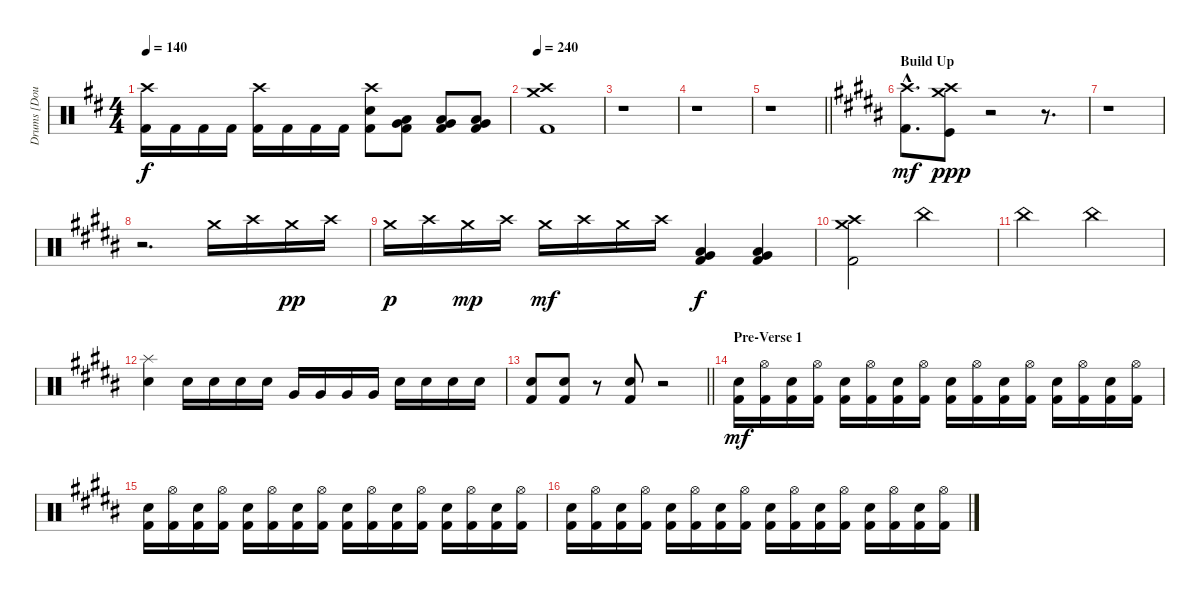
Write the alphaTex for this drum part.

\track ("Drums [Doug Anderson]" "Drums [Dou") {instrument percussion}
\staff {score}
\articulation defaults
\ts (4 4)
\tempo 140
\clef neutral
\ks bminor
("Crash high (hit)" "Kick (hit) 2").16{dy f} "Kick (hit) 2".16 "Kick (hit) 2".16 "Kick (hit) 2".16 ("Crash high (hit)" "Kick (hit) 2").16 "Kick (hit) 2".16 "Kick (hit) 2".16 "Kick (hit) 2".16 ("Crash high (hit)" "Electric Snare (hit)" "Kick (hit) 2").8 ("Low Tom (hit)" "Very Low Tom (hit)" "Kick (hit) 2").8 ("Low Tom (hit)" "Very Low Tom (hit)" "Kick (hit) 2").8 ("Very Low Tom (hit)" "Low Floor Tom (hit)" "Kick (hit) 2").8 |
\tempo 240
("Crash medium (hit)" "Crash high (hit)" "Kick (hit) 2").1 |
r.1 |
r.1 |
\barLineRight lightlight
r.1 |
\section ("" "Build Up")
\ks b
("Crash high (hit)"{hac} "Kick (hit) 2"{hac}).8{d dy mf} ("Crash high (hit)" "Crash medium (hit)" "Kick (hit)").8{dy ppp} r.2 r.8{d} |
r.1 |
r.2{d} "Crash medium (hit)".16 "Crash high (hit)".16 "Crash medium (hit)".16{dy pp} "Crash high (hit)".16 |
"Crash medium (hit)".16{dy p} "Crash high (hit)".16 "Crash medium (hit)".16{dy mp} "Crash high (hit)".16 "Crash medium (hit)".16{dy mf} "Crash high (hit)".16 "Crash medium (hit)".16 "Crash high (hit)".16 ("Very Low Tom (hit)" "Low Floor Tom (hit)" "Kick (hit) 2").4{dy f} ("Very Low Tom (hit)" "Low Floor Tom (hit)" "Kick (hit) 2").4 |
("Crash medium (hit)" "Crash high (hit)" "Kick (hit) 2").2 "China (hit)".2 |
"China (hit)".2 "China (hit)".2 |
("Splash (hit)" "Electric Snare (hit)").4 "Electric Snare (hit)".16 "Electric Snare (hit)".16 "Electric Snare (hit)".16 "Electric Snare (hit)".16 "Very Low Tom (hit)".16 "Very Low Tom (hit)".16 "Very Low Tom (hit)".16 "Very Low Tom (hit)".16 "Electric Snare (hit)".16 "Electric Snare (hit)".16 "Electric Snare (hit)".16 "Electric Snare (hit)".16 |
\barLineRight lightlight
("Electric Snare (hit)" "Kick (hit) 2").8 ("Electric Snare (hit)" "Kick (hit) 2").8 r.8 ("Electric Snare (hit)" "Kick (hit) 2").8 r.2 |
\section ("" "Pre-Verse 1")
("Electric Snare (hit)" "Kick (hit) 2").16{dy mf} ("Hi-Hat (open)" "Kick (hit) 2").16 ("Electric Snare (hit)" "Kick (hit) 2").16 ("Hi-Hat (open)" "Kick (hit) 2").16 ("Electric Snare (hit)" "Kick (hit) 2").16 ("Hi-Hat (open)" "Kick (hit) 2").16 ("Electric Snare (hit)" "Kick (hit) 2").16 ("Hi-Hat (open)" "Kick (hit) 2").16 ("Electric Snare (hit)" "Kick (hit) 2").16 ("Hi-Hat (open)" "Kick (hit) 2").16 ("Electric Snare (hit)" "Kick (hit) 2").16 ("Hi-Hat (open)" "Kick (hit) 2").16 ("Electric Snare (hit)" "Kick (hit) 2").16 ("Hi-Hat (open)" "Kick (hit) 2").16 ("Electric Snare (hit)" "Kick (hit) 2").16 ("Hi-Hat (open)" "Kick (hit) 2").16 |
("Electric Snare (hit)" "Kick (hit) 2").16 ("Hi-Hat (open)" "Kick (hit) 2").16 ("Electric Snare (hit)" "Kick (hit) 2").16 ("Hi-Hat (open)" "Kick (hit) 2").16 ("Electric Snare (hit)" "Kick (hit) 2").16 ("Hi-Hat (open)" "Kick (hit) 2").16 ("Electric Snare (hit)" "Kick (hit) 2").16 ("Hi-Hat (open)" "Kick (hit) 2").16 ("Electric Snare (hit)" "Kick (hit) 2").16 ("Hi-Hat (open)" "Kick (hit) 2").16 ("Electric Snare (hit)" "Kick (hit) 2").16 ("Hi-Hat (open)" "Kick (hit) 2").16 ("Electric Snare (hit)" "Kick (hit) 2").16 ("Hi-Hat (open)" "Kick (hit) 2").16 ("Electric Snare (hit)" "Kick (hit) 2").16 ("Hi-Hat (open)" "Kick (hit) 2").16 |
("Electric Snare (hit)" "Kick (hit) 2").16 ("Hi-Hat (open)" "Kick (hit) 2").16 ("Electric Snare (hit)" "Kick (hit) 2").16 ("Hi-Hat (open)" "Kick (hit) 2").16 ("Electric Snare (hit)" "Kick (hit) 2").16 ("Hi-Hat (open)" "Kick (hit) 2").16 ("Electric Snare (hit)" "Kick (hit) 2").16 ("Hi-Hat (open)" "Kick (hit) 2").16 ("Electric Snare (hit)" "Kick (hit) 2").16 ("Hi-Hat (open)" "Kick (hit) 2").16 ("Electric Snare (hit)" "Kick (hit) 2").16 ("Hi-Hat (open)" "Kick (hit) 2").16 ("Electric Snare (hit)" "Kick (hit) 2").16 ("Hi-Hat (open)" "Kick (hit) 2").16 ("Electric Snare (hit)" "Kick (hit) 2").16 ("Hi-Hat (open)" "Kick (hit) 2").16
